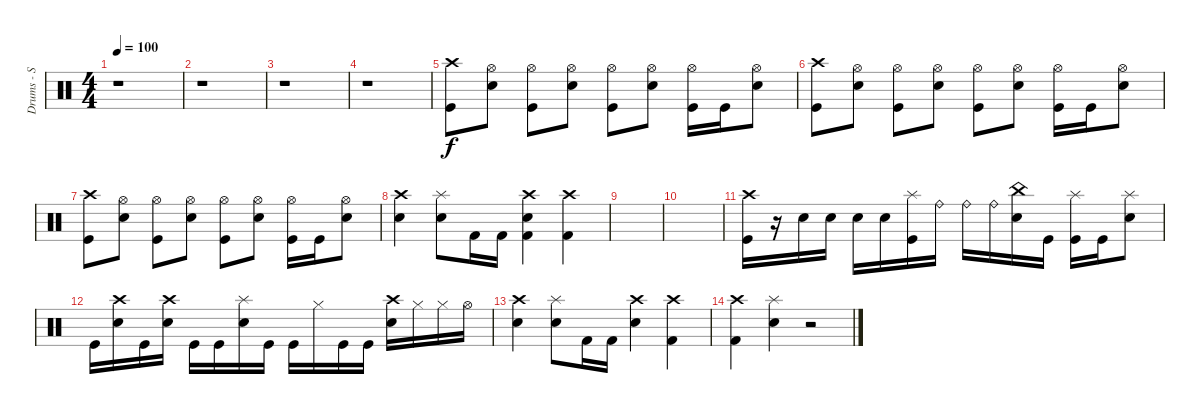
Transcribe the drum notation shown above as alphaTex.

\track ("Drums - S Man" "Drums - S ") {instrument percussion}
\staff {score}
\articulation defaults
\ts (4 4)
\tempo 100
\clef neutral
\ks c
r.1{dy f} |
r.1 |
r.1 |
r.1 |
("Crash high (hit)" "Kick (hit)").8 ("Hi-Hat (open)" "Electric Snare (hit)").8 ("Hi-Hat (open)" "Kick (hit)").8 ("Hi-Hat (open)" "Electric Snare (hit)").8 ("Hi-Hat (open)" "Kick (hit)").8 ("Hi-Hat (open)" "Electric Snare (hit)").8 ("Hi-Hat (open)" "Kick (hit)").16 "Kick (hit)".16 ("Hi-Hat (open)" "Electric Snare (hit)").8 |
("Crash high (hit)" "Kick (hit)").8 ("Hi-Hat (open)" "Electric Snare (hit)").8 ("Hi-Hat (open)" "Kick (hit)").8 ("Hi-Hat (open)" "Electric Snare (hit)").8 ("Hi-Hat (open)" "Kick (hit)").8 ("Hi-Hat (open)" "Electric Snare (hit)").8 ("Hi-Hat (open)" "Kick (hit)").16 "Kick (hit)".16 ("Hi-Hat (open)" "Electric Snare (hit)").8 |
("Crash high (hit)" "Kick (hit)").8 ("Hi-Hat (open)" "Electric Snare (hit)").8 ("Hi-Hat (open)" "Kick (hit)").8 ("Hi-Hat (open)" "Electric Snare (hit)").8 ("Hi-Hat (open)" "Kick (hit)").8 ("Hi-Hat (open)" "Electric Snare (hit)").8 ("Hi-Hat (open)" "Kick (hit)").16 "Kick (hit)".16 ("Hi-Hat (open)" "Electric Snare (hit)").8 |
("Crash high (hit)" "Electric Snare (hit)").4 ("Splash (hit)" "Electric Snare (hit)").8 "Kick (hit) 2".16 "Kick (hit) 2".16 ("Crash high (hit)" "Electric Snare (hit)" "Kick (hit) 2").4 ("Crash high (hit)" "Kick (hit) 2").4 |
|
|
("Crash high (hit)" "Kick (hit)").16 r.16 "Electric Snare (hit)".16 "Electric Snare (hit)".16 "Electric Snare (hit)".16 "Electric Snare (hit)".16 ("Splash (hit)" "Kick (hit)").16 "Ride (bell)".16 "Ride (bell)".16 "Ride (bell)".16 ("China (hit)" "Electric Snare (hit)").16 "Kick (hit)".16 ("Splash (hit)" "Kick (hit)").16 "Kick (hit)".16 ("Splash (hit)" "Electric Snare (hit)").8 |
"Kick (hit)".16 ("Crash high (hit)" "Electric Snare (hit)").16 "Kick (hit)".16 ("Crash high (hit)" "Electric Snare (hit)").16 "Kick (hit)".16 "Kick (hit)".16 ("Splash (hit)" "Electric Snare (hit)").16 "Kick (hit)".16 "Kick (hit)".16 "Hi-Hat (closed)".16 "Kick (hit)".16 "Kick (hit)".16 ("Crash high (hit)" "Electric Snare (hit)").16 "Hi-Hat (closed)".16 "Hi-Hat (closed)".16 "Hi-Hat (open)".16 |
("Crash high (hit)" "Electric Snare (hit)").4 ("Splash (hit)" "Electric Snare (hit)").8 "Kick (hit) 2".16 "Kick (hit) 2".16 ("Crash high (hit)" "Electric Snare (hit)").4 ("Crash high (hit)" "Kick (hit) 2").4 |
("Crash high (hit)" "Kick (hit) 2").4 ("Splash (hit)" "Electric Snare (hit)").4 r.2
